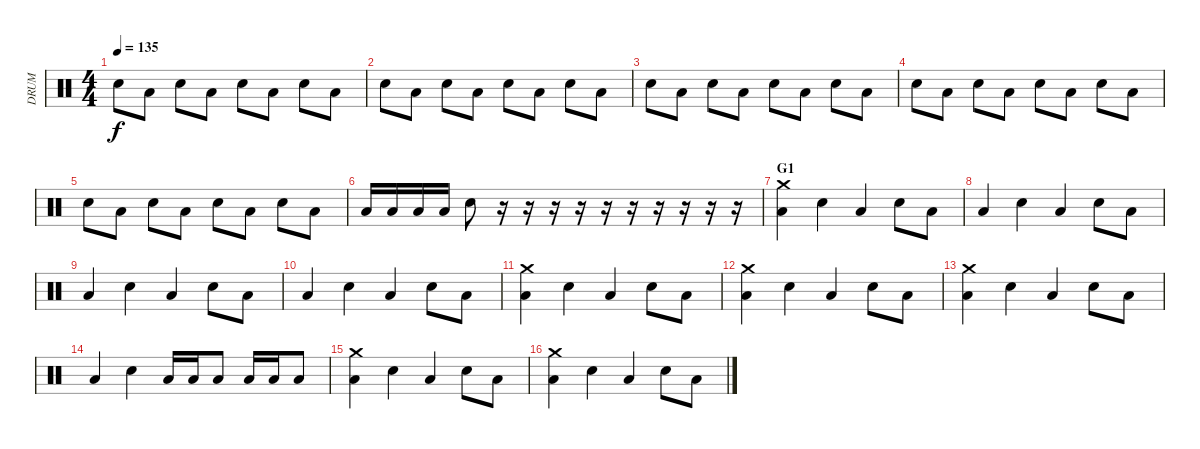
\track ("DRUM" "DRUM") {instrument percussion}
\staff {score}
\articulation defaults
\ts (4 4)
\tempo 135
\clef neutral
\ks c "Electric Snare (hit)".8{dy f} "Low Floor Tom (hit)".8 "Electric Snare (hit)".8 "Low Floor Tom (hit)".8 "Electric Snare (hit)".8 "Low Floor Tom (hit)".8 "Electric Snare (hit)".8 "Low Floor Tom (hit)".8
|
"Electric Snare (hit)".8 "Low Floor Tom (hit)".8 "Electric Snare (hit)".8 "Low Floor Tom (hit)".8 "Electric Snare (hit)".8 "Low Floor Tom (hit)".8 "Electric Snare (hit)".8 "Low Floor Tom (hit)".8 |
"Electric Snare (hit)".8 "Low Floor Tom (hit)".8 "Electric Snare (hit)".8 "Low Floor Tom (hit)".8 "Electric Snare (hit)".8 "Low Floor Tom (hit)".8 "Electric Snare (hit)".8 "Low Floor Tom (hit)".8 |
"Electric Snare (hit)".8 "Low Floor Tom (hit)".8 "Electric Snare (hit)".8 "Low Floor Tom (hit)".8 "Electric Snare (hit)".8 "Low Floor Tom (hit)".8 "Electric Snare (hit)".8 "Low Floor Tom (hit)".8 |
"Electric Snare (hit)".8 "Low Floor Tom (hit)".8 "Electric Snare (hit)".8 "Low Floor Tom (hit)".8 "Electric Snare (hit)".8 "Low Floor Tom (hit)".8 "Electric Snare (hit)".8 "Low Floor Tom (hit)".8 |
"Low Floor Tom (hit)".16 "Low Floor Tom (hit)".16 "Low Floor Tom (hit)".16 "Low Floor Tom (hit)".16 "Electric Snare (hit)".8 r.16 r.16 r.16 r.16 r.16 r.16 r.16 r.16 r.16 r.16 |
\section ("" "G1")
("Low Floor Tom (hit)" "Crash medium (hit)").4 "Electric Snare (hit)".4 "Low Floor Tom (hit)".4 "Electric Snare (hit)".8 "Low Floor Tom (hit)".8 |
"Low Floor Tom (hit)".4 "Electric Snare (hit)".4 "Low Floor Tom (hit)".4 "Electric Snare (hit)".8 "Low Floor Tom (hit)".8 |
"Low Floor Tom (hit)".4 "Electric Snare (hit)".4 "Low Floor Tom (hit)".4 "Electric Snare (hit)".8 "Low Floor Tom (hit)".8 |
"Low Floor Tom (hit)".4 "Electric Snare (hit)".4 "Low Floor Tom (hit)".4 "Electric Snare (hit)".8 "Low Floor Tom (hit)".8 |
("Low Floor Tom (hit)" "Crash medium (hit)").4 "Electric Snare (hit)".4 "Low Floor Tom (hit)".4 "Electric Snare (hit)".8 "Low Floor Tom (hit)".8 |
("Low Floor Tom (hit)" "Crash medium (hit)").4 "Electric Snare (hit)".4 "Low Floor Tom (hit)".4 "Electric Snare (hit)".8 "Low Floor Tom (hit)".8 |
("Low Floor Tom (hit)" "Crash medium (hit)").4 "Electric Snare (hit)".4 "Low Floor Tom (hit)".4 "Electric Snare (hit)".8 "Low Floor Tom (hit)".8 |
"Low Floor Tom (hit)".4 "Electric Snare (hit)".4 "Low Floor Tom (hit)".16 "Low Floor Tom (hit)".16 "Low Floor Tom (hit)".8 "Low Floor Tom (hit)".16 "Low Floor Tom (hit)".16 "Low Floor Tom (hit)".8 |
("Low Floor Tom (hit)" "Crash medium (hit)").4 "Electric Snare (hit)".4 "Low Floor Tom (hit)".4 "Electric Snare (hit)".8 "Low Floor Tom (hit)".8 |
("Low Floor Tom (hit)" "Crash medium (hit)").4 "Electric Snare (hit)".4 "Low Floor Tom (hit)".4 "Electric Snare (hit)".8 "Low Floor Tom (hit)".8
